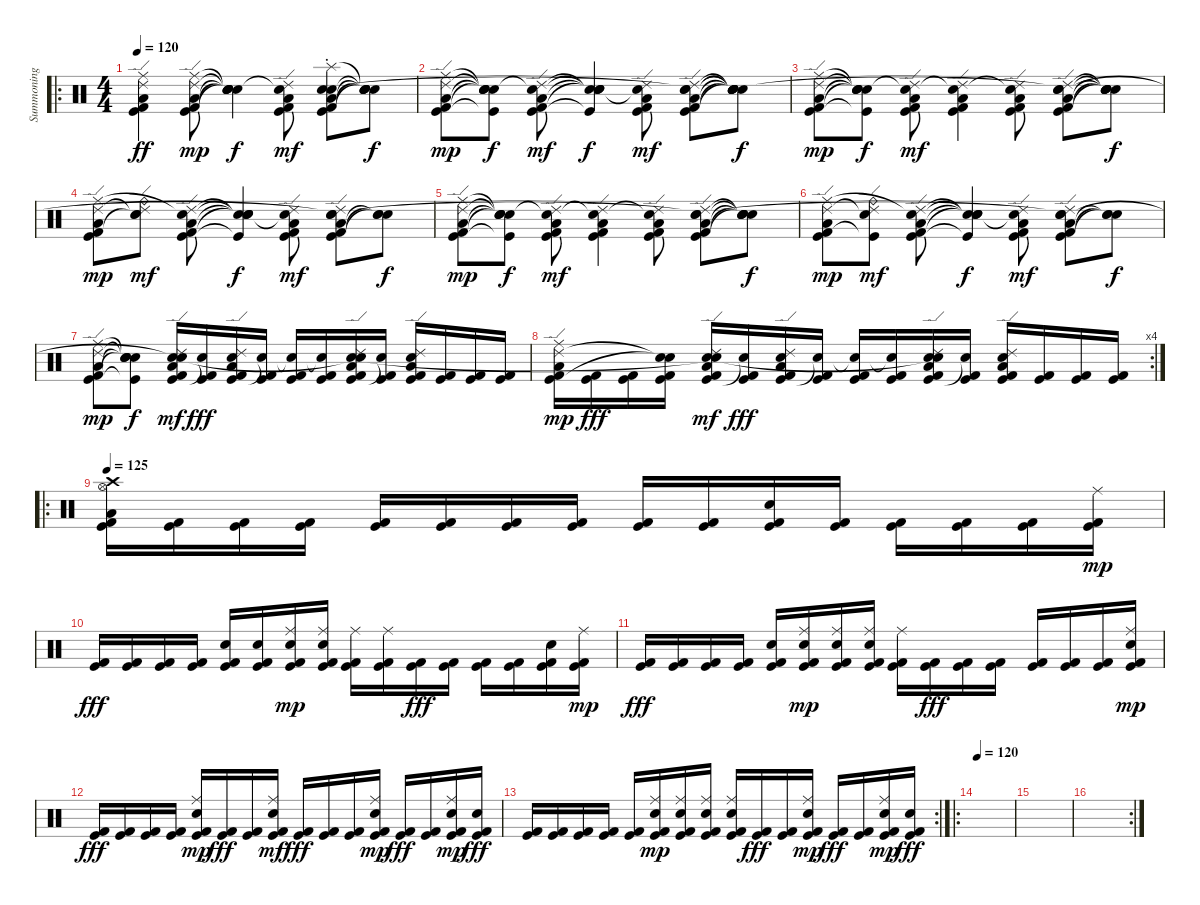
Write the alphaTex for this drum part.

\track ("Summoning" "Summoning") {instrument percussion}
\staff {score}
\articulation defaults
\ro
\ts (4 4)
\tempo 120
\clef neutral
\ks c
("Low Floor Tom (hit)" "Kick (hit) 2" "Kick (hit)" "Ride (edge) 2" "Ride (middle)").4{dy ff} ("Low Floor Tom (hit)" "Kick (hit) 2" "Kick (hit)" "Ride (edge) 2" "Ride (middle)").8{dy mp volume 15} ("Snare (hit)"{t} "Snare (hit)"{t} "Snare (hit)"{t} "Snare (hit)"{t} "Snare (hit)"{t}).4{dy f} ("Low Floor Tom (hit)" "Kick (hit) 2" "Kick (hit)" "Ride (edge) 2" "Snare (hit)"{t}).8{dy mf} ("Low Floor Tom (hit)" "Kick (hit) 2" "Kick (hit)" "Snare (hit) 2" "Splash (choke)" "Snare (hit)").8 ("Snare (hit)"{t} "Snare (hit)"{t} "Snare (hit)"{t} "Snare (hit)"{t} "Snare (hit)"{t}).8{dy f} |
("Low Floor Tom (hit)" "Kick (hit) 2" "Kick (hit)" "Ride (edge) 2" "Ride (middle)").8{dy mp} ("Snare (hit)"{t} "Snare (hit)"{t} "Kick (hit)"{t} "Snare (hit)"{t} "Snare (hit)"{t}).8{dy f} ("Low Floor Tom (hit)" "Kick (hit) 2" "Kick (hit)" "Ride (edge) 2" "Snare (hit)"{t}).8{dy mf} ("Snare (hit)"{t} "Snare (hit)"{t} "Kick (hit)"{t} "Snare (hit)"{t} "Snare (hit)"{t}).4{dy f} ("Low Floor Tom (hit)" "Kick (hit) 2" "Kick (hit)" "Ride (edge) 2" "Snare (hit)"{t}).8{dy mf} ("Low Floor Tom (hit)" "Kick (hit) 2" "Kick (hit)" "Snare (hit) 2" "Ride (edge) 2" "Snare (hit)"{t}).8 ("Snare (hit)"{t} "Snare (hit)"{t} "Snare (hit)"{t} "Snare (hit)"{t} "Snare (hit)"{t} "Snare (hit)"{t}).8{dy f} |
("Low Floor Tom (hit)" "Kick (hit) 2" "Kick (hit)" "Ride (edge) 2" "Ride (middle)").8{dy mp} ("Snare (hit)"{t} "Snare (hit)"{t} "Kick (hit)"{t} "Snare (hit)"{t} "Snare (hit)"{t}).8{dy f} ("Low Floor Tom (hit)" "Kick (hit) 2" "Kick (hit)" "Ride (edge) 2" "Snare (hit)"{t}).8{dy mf} ("Low Floor Tom (hit)" "Kick (hit) 2" "Kick (hit)" "Ride (edge) 2" "Snare (hit)"{t}).4 ("Low Floor Tom (hit)" "Kick (hit) 2" "Kick (hit)" "Ride (edge) 2" "Snare (hit)"{t}).8 ("Low Floor Tom (hit)" "Kick (hit) 2" "Kick (hit)" "Snare (hit) 2" "Ride (edge) 2" "Snare (hit)"{t}).8 ("Snare (hit)"{t} "Snare (hit)"{t} "Snare (hit)"{t} "Snare (hit)"{t} "Snare (hit)"{t}).8{dy f} |
("Low Floor Tom (hit)" "Kick (hit) 2" "Kick (hit)" "Ride (edge) 2" "Ride (middle)").8{dy mp} ("Ride (bell)" "Snare (hit)"{t} "Ride (edge) 2" "Snare (hit)"{t}).8{dy mf} ("Low Floor Tom (hit)" "Kick (hit) 2" "Kick (hit)" "Ride (edge) 2" "Snare (hit)"{t}).8 ("Snare (hit)"{t} "Snare (hit)"{t} "Kick (hit)"{t} "Snare (hit)"{t} "Snare (hit)"{t}).4{dy f} ("Low Floor Tom (hit)" "Kick (hit) 2" "Kick (hit)" "Ride (edge) 2" "Snare (hit)"{t}).8{dy mf} ("Low Floor Tom (hit)" "Kick (hit) 2" "Kick (hit)" "Snare (hit) 2" "Ride (edge) 2" "Snare (hit)"{t}).8 ("Snare (hit)"{t} "Snare (hit)"{t} "Snare (hit)"{t}).8{dy f} |
("Low Floor Tom (hit)" "Kick (hit) 2" "Kick (hit)" "Ride (edge) 2" "Ride (middle)").8{dy mp} ("Snare (hit)"{t} "Snare (hit)"{t} "Kick (hit)"{t} "Snare (hit)"{t} "Snare (hit)"{t}).8{dy f} ("Low Floor Tom (hit)" "Kick (hit) 2" "Kick (hit)" "Ride (edge) 2" "Snare (hit)"{t}).8{dy mf} ("Low Floor Tom (hit)" "Kick (hit) 2" "Kick (hit)" "Ride (edge) 2" "Snare (hit)"{t}).4 ("Low Floor Tom (hit)" "Kick (hit) 2" "Kick (hit)" "Ride (edge) 2" "Snare (hit)"{t}).8 ("Low Floor Tom (hit)" "Kick (hit) 2" "Kick (hit)" "Snare (hit) 2" "Ride (edge) 2" "Snare (hit)"{t}).8 ("Snare (hit)"{t} "Snare (hit)"{t} "Snare (hit)"{t} "Snare (hit)"{t} "Snare (hit)"{t}).8{dy f} |
("Low Floor Tom (hit)" "Kick (hit) 2" "Kick (hit)" "Ride (edge) 2" "Ride (middle)").8{dy mp} ("Ride (bell)" "Kick (hit)"{t} "Ride (edge) 2" "Snare (hit)"{t}).8{dy mf} ("Low Floor Tom (hit)" "Kick (hit) 2" "Kick (hit)" "Ride (edge) 2" "Snare (hit)"{t}).8 ("Snare (hit)"{t} "Snare (hit)"{t} "Kick (hit)"{t} "Snare (hit)"{t} "Snare (hit)"{t}).4{dy f} ("Low Floor Tom (hit)" "Kick (hit) 2" "Kick (hit)" "Ride (edge) 2" "Snare (hit)"{t}).8{dy mf} ("Low Floor Tom (hit)" "Kick (hit) 2" "Kick (hit)" "Snare (hit) 2" "Ride (edge) 2" "Snare (hit)"{t}).8 ("Snare (hit)"{t} "Snare (hit)"{t} "Snare (hit)"{t}).8{dy f} |
("Low Floor Tom (hit)" "Kick (hit) 2" "Kick (hit)" "Ride (edge) 2" "Ride (middle)").8{dy mp} ("Snare (hit)"{t} "Snare (hit)"{t} "Kick (hit)"{t} "Snare (hit)"{t} "Snare (hit)"{t}).8{dy f} ("Low Floor Tom (hit)" "Kick (hit) 2" "Kick (hit)" "Snare (hit) 2" "Ride (edge) 2" "Snare (hit)"{t}).16{dy mf} ("Kick (hit) 2" "Kick (hit)" "Snare (hit)"{t}).16{dy fff} ("Low Floor Tom (hit)" "Kick (hit) 2" "Kick (hit)" "Snare (hit) 2" "Ride (edge) 2").16 ("Kick (hit) 2" "Kick (hit)" "Snare (hit)"{t}).16 ("Kick (hit) 2" "Kick (hit)" "Snare (hit)"{t}).16 ("Kick (hit) 2" "Kick (hit)" "Snare (hit)"{t}).16 ("Low Floor Tom (hit)" "Kick (hit) 2" "Kick (hit)" "Snare (hit) 2" "Ride (edge) 2" "Snare (hit)"{t}).16 ("Kick (hit) 2" "Kick (hit)" "Snare (hit)"{t}).16 ("Low Floor Tom (hit)" "Kick (hit) 2" "Kick (hit)" "Snare (hit) 2" "Ride (edge) 2").16 ("Kick (hit) 2" "Kick (hit)").16 ("Kick (hit) 2" "Kick (hit)").16 ("Kick (hit) 2" "Kick (hit)").16 |
\rc 4
("Low Floor Tom (hit)" "Kick (hit) 2" "Kick (hit)" "Ride (edge) 2" "Ride (middle)").16{dy mp} ("Kick (hit)" "Kick (hit) 2").16{dy fff} ("Kick (hit)" "Kick (hit) 2").16 ("Kick (hit)" "Kick (hit) 2" "Snare (hit)"{t} "Snare (hit)"{t}).16 ("Low Floor Tom (hit)" "Kick (hit) 2" "Kick (hit)" "Snare (hit) 2" "Ride (edge) 2" "Snare (hit)"{t}).16{dy mf} ("Kick (hit) 2" "Kick (hit)" "Snare (hit)"{t}).16{dy fff} ("Low Floor Tom (hit)" "Kick (hit) 2" "Kick (hit)" "Snare (hit) 2" "Ride (edge) 2").16 ("Kick (hit) 2" "Kick (hit)" "Snare (hit)"{t}).16 ("Kick (hit) 2" "Kick (hit)" "Snare (hit)"{t}).16 ("Kick (hit) 2" "Kick (hit)" "Snare (hit)"{t}).16 ("Low Floor Tom (hit)" "Kick (hit) 2" "Kick (hit)" "Snare (hit) 2" "Ride (edge) 2" "Snare (hit)"{t}).16 ("Kick (hit) 2" "Kick (hit)" "Snare (hit)"{t}).16 ("Low Floor Tom (hit)" "Kick (hit) 2" "Kick (hit)" "Snare (hit) 2" "Ride (edge) 2").16 ("Kick (hit) 2" "Kick (hit)").16 ("Kick (hit) 2" "Kick (hit)").16 ("Kick (hit) 2" "Kick (hit)").16 |
\ro
\tempo 125
("Low Floor Tom (hit)" "Kick (hit) 2" "Kick (hit)" "Hi-Hat (open)" "Crash high (hit)").16 ("Kick (hit)" "Kick (hit) 2").16 ("Kick (hit)" "Kick (hit) 2").16 ("Kick (hit)" "Kick (hit) 2").16 ("Kick (hit) 2" "Kick (hit)").16 ("Kick (hit) 2" "Kick (hit)").16 ("Kick (hit) 2" "Kick (hit)").16 ("Kick (hit) 2" "Kick (hit)").16 ("Kick (hit) 2" "Kick (hit)").16 ("Kick (hit) 2" "Kick (hit)").16 ("Electric Snare (hit)" "Kick (hit) 2" "Kick (hit)").16 ("Kick (hit) 2" "Kick (hit)").16 ("Kick (hit) 2" "Kick (hit)").16 ("Kick (hit) 2" "Kick (hit)").16 ("Kick (hit) 2" "Kick (hit)").16 ("Kick (hit) 2" "Kick (hit)" "Ride (middle)").16{dy mp} |
("Kick (hit) 2" "Kick (hit)").16{dy fff} ("Kick (hit)" "Kick (hit) 2").16 ("Kick (hit)" "Kick (hit) 2").16 ("Kick (hit)" "Kick (hit) 2").16 ("Electric Snare (hit)" "Kick (hit) 2" "Kick (hit)").16 ("Electric Snare (hit)" "Kick (hit) 2" "Kick (hit)").16 ("Electric Snare (hit)" "Kick (hit) 2" "Kick (hit)" "Ride (middle)").16{dy mp} ("Electric Snare (hit)" "Kick (hit) 2" "Kick (hit)" "Ride (middle)").16 ("Kick (hit) 2" "Kick (hit)" "Ride (middle)").16 ("Kick (hit) 2" "Kick (hit)" "Ride (middle)").16 ("Kick (hit) 2" "Kick (hit)").16{dy fff} ("Kick (hit) 2" "Kick (hit)").16 ("Kick (hit) 2" "Kick (hit)").16 ("Kick (hit) 2" "Kick (hit)").16 ("Electric Snare (hit)" "Kick (hit) 2" "Kick (hit)").16 ("Kick (hit) 2" "Kick (hit)" "Ride (middle)").16{dy mp} |
("Kick (hit) 2" "Kick (hit)").16{dy fff} ("Kick (hit)" "Kick (hit) 2").16 ("Kick (hit)" "Kick (hit) 2").16 ("Kick (hit)" "Kick (hit) 2").16 ("Electric Snare (hit)" "Kick (hit) 2" "Kick (hit)").16 ("Electric Snare (hit)" "Kick (hit) 2" "Kick (hit)" "Ride (middle)").16{dy mp} ("Electric Snare (hit)" "Kick (hit) 2" "Kick (hit)" "Ride (middle)").16 ("Electric Snare (hit)" "Kick (hit) 2" "Kick (hit)" "Ride (middle)").16 ("Kick (hit) 2" "Kick (hit)" "Ride (middle)").16 ("Kick (hit) 2" "Kick (hit)").16{dy fff} ("Kick (hit) 2" "Kick (hit)").16 ("Kick (hit) 2" "Kick (hit)").16 ("Kick (hit) 2" "Kick (hit)").16 ("Kick (hit) 2" "Kick (hit)").16 ("Kick (hit) 2" "Kick (hit)").16 ("Electric Snare (hit)" "Kick (hit) 2" "Kick (hit)" "Ride (middle)").16{dy mp} |
("Kick (hit) 2" "Kick (hit)").16{dy fff} ("Kick (hit)" "Kick (hit) 2").16 ("Kick (hit)" "Kick (hit) 2").16 ("Kick (hit)" "Kick (hit) 2").16 ("Electric Snare (hit)" "Kick (hit) 2" "Kick (hit)" "Ride (middle)").16{dy mp} ("Kick (hit) 2" "Kick (hit)").16{dy fff} ("Kick (hit) 2" "Kick (hit)").16 ("Electric Snare (hit)" "Kick (hit) 2" "Kick (hit)" "Ride (middle)").16{dy mf} ("Kick (hit) 2" "Kick (hit)").16{dy fff} ("Kick (hit) 2" "Kick (hit)").16 ("Kick (hit) 2" "Kick (hit)").16 ("Electric Snare (hit)" "Kick (hit) 2" "Kick (hit)" "Ride (middle)").16{dy mp} ("Kick (hit) 2" "Kick (hit)").16{dy fff} ("Kick (hit) 2" "Kick (hit)").16 ("Electric Snare (hit)" "Kick (hit) 2" "Kick (hit)" "Ride (middle)").16{dy mp} ("Electric Snare (hit)" "Kick (hit) 2" "Kick (hit)").16{dy fff} |
\rc 2
("Kick (hit) 2" "Kick (hit)").16 ("Kick (hit)" "Kick (hit) 2").16 ("Kick (hit)" "Kick (hit) 2").16 ("Kick (hit)" "Kick (hit) 2").16 ("Kick (hit) 2" "Kick (hit)").16 ("Electric Snare (hit)" "Kick (hit) 2" "Kick (hit)" "Ride (middle)").16{dy mp} ("Electric Snare (hit)" "Kick (hit) 2" "Kick (hit)" "Ride (middle)").16 ("Electric Snare (hit)" "Kick (hit) 2" "Kick (hit)" "Ride (middle)").16 ("Electric Snare (hit)" "Kick (hit) 2" "Kick (hit)" "Ride (middle)").16 ("Kick (hit) 2" "Kick (hit)").16{dy fff} ("Kick (hit) 2" "Kick (hit)").16 ("Electric Snare (hit)" "Kick (hit) 2" "Kick (hit)" "Ride (middle)").16{dy mp} ("Kick (hit) 2" "Kick (hit)").16{dy fff} ("Kick (hit) 2" "Kick (hit)").16 ("Electric Snare (hit)" "Kick (hit) 2" "Kick (hit)" "Ride (middle)").16{dy mp} ("Electric Snare (hit)" "Kick (hit) 2" "Kick (hit)").16{dy fff} |
\ro
\tempo 120
|
|
\rc 2
